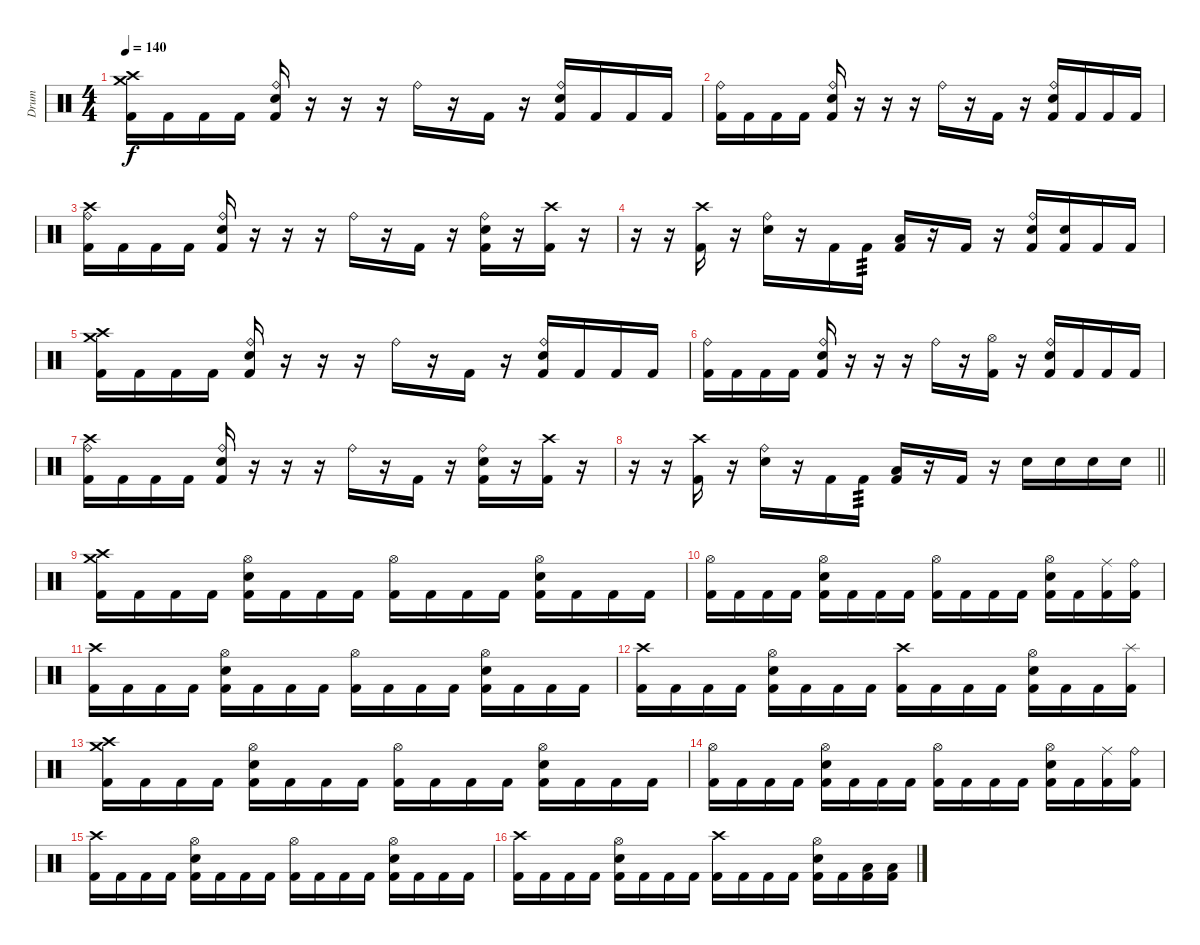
\track ("Drum" "Drum") {instrument percussion}
\staff {score}
\articulation defaults
\ts (4 4)
\tempo 140
\clef neutral
\ks c
("Crash high (hit)" "Crash medium (hit)" "Kick (hit) 2").16{dy f} "Kick (hit) 2".16 "Kick (hit) 2".16 "Kick (hit) 2".16 ("Ride (bell)" "Snare (hit) 2" "Kick (hit) 2").16 r.16 r.16 r.16 "Ride (bell)".16 r.16 "Kick (hit) 2".16 r.16 ("Ride (bell)" "Snare (hit) 2" "Kick (hit) 2").16 "Kick (hit) 2".16 "Kick (hit) 2".16 "Kick (hit) 2".16 |
("Ride (bell)" "Kick (hit) 2").16 "Kick (hit) 2".16 "Kick (hit) 2".16 "Kick (hit) 2".16 ("Ride (bell)" "Snare (hit) 2" "Kick (hit) 2").16 r.16 r.16 r.16 "Ride (bell)".16 r.16 "Kick (hit) 2".16 r.16 ("Ride (bell)" "Snare (hit) 2" "Kick (hit) 2").16 "Kick (hit) 2".16 "Kick (hit) 2".16 "Kick (hit) 2".16 |
("Crash high (hit)" "Ride (bell)" "Kick (hit) 2").16 "Kick (hit) 2".16 "Kick (hit) 2".16 "Kick (hit) 2".16 ("Ride (bell)" "Snare (hit) 2" "Kick (hit) 2").16 r.16 r.16 r.16 "Ride (bell)".16 r.16 "Kick (hit) 2".16 r.16 ("Ride (bell)" "Snare (hit) 2" "Kick (hit) 2").16 r.16 ("Crash high (hit)" "Kick (hit) 2").16 r.16 |
r.16 r.16 ("Crash high (hit)" "Kick (hit) 2").16 r.16 ("Ride (bell)" "Snare (hit) 2").16 r.16 "Kick (hit) 2".16 "Kick (hit) 2".16{tp 3} ("Low Floor Tom (hit)" "Kick (hit) 2").16 r.16 "Kick (hit) 2".16 r.16 ("Ride (bell)" "Snare (hit) 2" "Kick (hit) 2").16 ("Snare (hit) 2" "Kick (hit) 2").16 "Kick (hit) 2".16 "Kick (hit) 2".16 |
("Crash high (hit)" "Crash medium (hit)" "Kick (hit) 2").16 "Kick (hit) 2".16 "Kick (hit) 2".16 "Kick (hit) 2".16 ("Ride (bell)" "Snare (hit) 2" "Kick (hit) 2").16 r.16 r.16 r.16 "Ride (bell)".16 r.16 "Kick (hit) 2".16 r.16 ("Ride (bell)" "Snare (hit) 2" "Kick (hit) 2").16 "Kick (hit) 2".16 "Kick (hit) 2".16 "Kick (hit) 2".16 |
("Ride (bell)" "Kick (hit) 2").16 "Kick (hit) 2".16 "Kick (hit) 2".16 "Kick (hit) 2".16 ("Ride (bell)" "Snare (hit) 2" "Kick (hit) 2").16 r.16 r.16 r.16 "Ride (bell)".16 r.16 ("Hi-Hat (open)" "Kick (hit) 2").16 r.16 ("Ride (bell)" "Snare (hit) 2" "Kick (hit) 2").16 "Kick (hit) 2".16 "Kick (hit) 2".16 "Kick (hit) 2".16 |
("Crash high (hit)" "Ride (bell)" "Kick (hit) 2").16 "Kick (hit) 2".16 "Kick (hit) 2".16 "Kick (hit) 2".16 ("Ride (bell)" "Snare (hit) 2" "Kick (hit) 2").16 r.16 r.16 r.16 "Ride (bell)".16 r.16 "Kick (hit) 2".16 r.16 ("Ride (bell)" "Snare (hit) 2" "Kick (hit) 2").16 r.16 ("Crash high (hit)" "Kick (hit) 2").16 r.16 |
\barLineRight lightlight
r.16 r.16 ("Crash high (hit)" "Kick (hit) 2").16 r.16 ("Ride (bell)" "Snare (hit) 2").16 r.16 "Kick (hit) 2".16 "Kick (hit) 2".16{tp 3} ("Low Floor Tom (hit)" "Kick (hit) 2").16 r.16 "Kick (hit) 2".16 r.16 "Snare (hit) 2".16 "Snare (hit) 2".16 "Snare (hit) 2".16 "Snare (hit) 2".16 |
\section ("" "")
("Crash high (hit)" "Crash medium (hit)" "Kick (hit) 2").16 "Kick (hit) 2".16 "Kick (hit) 2".16 "Kick (hit) 2".16 ("Hi-Hat (open)" "Snare (hit) 2" "Kick (hit) 2").16 "Kick (hit) 2".16 "Kick (hit) 2".16 "Kick (hit) 2".16 ("Hi-Hat (open)" "Kick (hit) 2").16 "Kick (hit) 2".16 "Kick (hit) 2".16 "Kick (hit) 2".16 ("Hi-Hat (open)" "Snare (hit) 2" "Kick (hit) 2").16 "Kick (hit) 2".16 "Kick (hit) 2".16 "Kick (hit) 2".16 |
("Hi-Hat (open)" "Kick (hit) 2").16 "Kick (hit) 2".16 "Kick (hit) 2".16 "Kick (hit) 2".16 ("Hi-Hat (open)" "Snare (hit) 2" "Kick (hit) 2").16 "Kick (hit) 2".16 "Kick (hit) 2".16 "Kick (hit) 2".16 ("Hi-Hat (open)" "Kick (hit) 2").16 "Kick (hit) 2".16 "Kick (hit) 2".16 "Kick (hit) 2".16 ("Hi-Hat (open)" "Snare (hit) 2" "Kick (hit) 2").16 "Kick (hit) 2".16 ("Ride (middle)" "Kick (hit) 2").16 ("Ride (bell)" "Kick (hit) 2").16 |
("Crash high (hit)" "Kick (hit) 2").16 "Kick (hit) 2".16 "Kick (hit) 2".16 "Kick (hit) 2".16 ("Hi-Hat (open)" "Snare (hit) 2" "Kick (hit) 2").16 "Kick (hit) 2".16 "Kick (hit) 2".16 "Kick (hit) 2".16 ("Hi-Hat (open)" "Kick (hit) 2").16 "Kick (hit) 2".16 "Kick (hit) 2".16 "Kick (hit) 2".16 ("Hi-Hat (open)" "Snare (hit) 2" "Kick (hit) 2").16 "Kick (hit) 2".16 "Kick (hit) 2".16 "Kick (hit) 2".16 |
("Crash high (hit)" "Kick (hit) 2").16 "Kick (hit) 2".16 "Kick (hit) 2".16 "Kick (hit) 2".16 ("Hi-Hat (open)" "Snare (hit) 2" "Kick (hit) 2").16 "Kick (hit) 2".16 "Kick (hit) 2".16 "Kick (hit) 2".16 ("Crash high (hit)" "Kick (hit) 2").16 "Kick (hit) 2".16 "Kick (hit) 2".16 "Kick (hit) 2".16 ("Hi-Hat (open)" "Snare (hit) 2" "Kick (hit) 2").16 "Kick (hit) 2".16 "Kick (hit) 2".16 ("Splash (hit)" "Kick (hit) 2").16 |
("Crash high (hit)" "Crash medium (hit)" "Kick (hit) 2").16 "Kick (hit) 2".16 "Kick (hit) 2".16 "Kick (hit) 2".16 ("Hi-Hat (open)" "Snare (hit) 2" "Kick (hit) 2").16 "Kick (hit) 2".16 "Kick (hit) 2".16 "Kick (hit) 2".16 ("Hi-Hat (open)" "Kick (hit) 2").16 "Kick (hit) 2".16 "Kick (hit) 2".16 "Kick (hit) 2".16 ("Hi-Hat (open)" "Snare (hit) 2" "Kick (hit) 2").16 "Kick (hit) 2".16 "Kick (hit) 2".16 "Kick (hit) 2".16 |
("Hi-Hat (open)" "Kick (hit) 2").16 "Kick (hit) 2".16 "Kick (hit) 2".16 "Kick (hit) 2".16 ("Hi-Hat (open)" "Snare (hit) 2" "Kick (hit) 2").16 "Kick (hit) 2".16 "Kick (hit) 2".16 "Kick (hit) 2".16 ("Hi-Hat (open)" "Kick (hit) 2").16 "Kick (hit) 2".16 "Kick (hit) 2".16 "Kick (hit) 2".16 ("Hi-Hat (open)" "Snare (hit) 2" "Kick (hit) 2").16 "Kick (hit) 2".16 ("Ride (middle)" "Kick (hit) 2").16 ("Ride (bell)" "Kick (hit) 2").16 |
("Crash high (hit)" "Kick (hit) 2").16 "Kick (hit) 2".16 "Kick (hit) 2".16 "Kick (hit) 2".16 ("Hi-Hat (open)" "Snare (hit) 2" "Kick (hit) 2").16 "Kick (hit) 2".16 "Kick (hit) 2".16 "Kick (hit) 2".16 ("Hi-Hat (open)" "Kick (hit) 2").16 "Kick (hit) 2".16 "Kick (hit) 2".16 "Kick (hit) 2".16 ("Hi-Hat (open)" "Snare (hit) 2" "Kick (hit) 2").16 "Kick (hit) 2".16 "Kick (hit) 2".16 "Kick (hit) 2".16 |
("Crash high (hit)" "Kick (hit) 2").16 "Kick (hit) 2".16 "Kick (hit) 2".16 "Kick (hit) 2".16 ("Hi-Hat (open)" "Snare (hit) 2" "Kick (hit) 2").16 "Kick (hit) 2".16 "Kick (hit) 2".16 "Kick (hit) 2".16 ("Crash high (hit)" "Kick (hit) 2").16 "Kick (hit) 2".16 "Kick (hit) 2".16 "Kick (hit) 2".16 ("Hi-Hat (open)" "Snare (hit) 2" "Kick (hit) 2").16 "Kick (hit) 2".16 ("Low Floor Tom (hit)" "Kick (hit) 2").16 ("Low Floor Tom (hit)" "Kick (hit) 2").16
